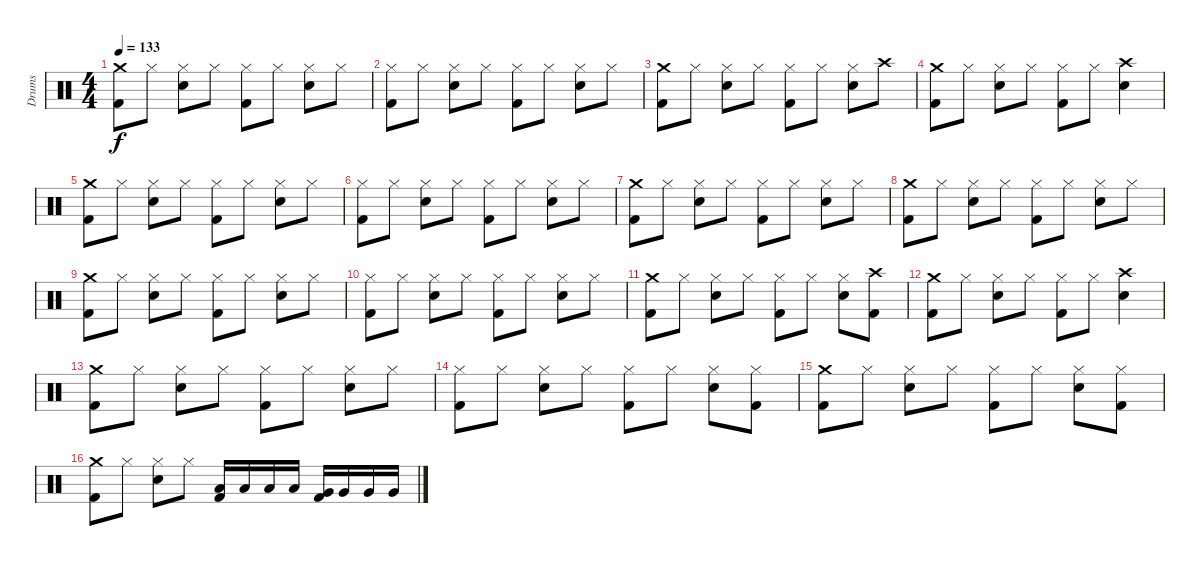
\track ("Drums" "Drums") {instrument percussion}
\staff {score}
\articulation defaults
\ts (4 4)
\tempo 133
\clef neutral
\ks c
("Crash medium (hit)" "Kick (hit) 2").8{dy f} "Hi-Hat (closed)".8 ("Hi-Hat (closed)" "Snare (hit) 2").8 "Hi-Hat (closed)".8 ("Hi-Hat (closed)" "Kick (hit) 2").8 "Hi-Hat (closed)".8 ("Hi-Hat (closed)" "Snare (hit) 2").8 "Hi-Hat (closed)".8 |
("Hi-Hat (closed)" "Kick (hit) 2").8 "Hi-Hat (closed)".8 ("Hi-Hat (closed)" "Snare (hit) 2").8 "Hi-Hat (closed)".8 ("Hi-Hat (closed)" "Kick (hit) 2").8 "Hi-Hat (closed)".8 ("Hi-Hat (closed)" "Snare (hit) 2").8 "Hi-Hat (closed)".8 |
("Crash medium (hit)" "Kick (hit) 2").8 "Hi-Hat (closed)".8 ("Hi-Hat (closed)" "Snare (hit) 2").8 "Hi-Hat (closed)".8 ("Hi-Hat (closed)" "Kick (hit) 2").8 "Hi-Hat (closed)".8 ("Hi-Hat (closed)" "Snare (hit) 2").8 "Crash high (hit)".8 |
("Crash medium (hit)" "Kick (hit) 2").8 "Hi-Hat (closed)".8 ("Hi-Hat (closed)" "Snare (hit) 2").8 "Hi-Hat (closed)".8 ("Hi-Hat (closed)" "Kick (hit) 2").8 "Hi-Hat (closed)".8 ("Crash high (hit)" "Snare (hit) 2").4 |
("Crash medium (hit)" "Kick (hit) 2").8 "Hi-Hat (closed)".8 ("Hi-Hat (closed)" "Snare (hit) 2").8 "Hi-Hat (closed)".8 ("Hi-Hat (closed)" "Kick (hit) 2").8 "Hi-Hat (closed)".8 ("Hi-Hat (closed)" "Snare (hit) 2").8 "Hi-Hat (closed)".8 |
("Hi-Hat (closed)" "Kick (hit) 2").8 "Hi-Hat (closed)".8 ("Hi-Hat (closed)" "Snare (hit) 2").8 "Hi-Hat (closed)".8 ("Hi-Hat (closed)" "Kick (hit) 2").8 "Hi-Hat (closed)".8 ("Hi-Hat (closed)" "Snare (hit) 2").8 "Hi-Hat (closed)".8 |
("Crash medium (hit)" "Kick (hit) 2").8 "Hi-Hat (closed)".8 ("Hi-Hat (closed)" "Snare (hit) 2").8 "Hi-Hat (closed)".8 ("Hi-Hat (closed)" "Kick (hit) 2").8 "Hi-Hat (closed)".8 ("Hi-Hat (closed)" "Snare (hit) 2").8 "Hi-Hat (closed)".8 |
("Crash medium (hit)" "Kick (hit) 2").8 "Hi-Hat (closed)".8 ("Hi-Hat (closed)" "Snare (hit) 2").8 "Hi-Hat (closed)".8 ("Hi-Hat (closed)" "Kick (hit) 2").8 "Hi-Hat (closed)".8 ("Hi-Hat (closed)" "Snare (hit) 2").8 "Hi-Hat (closed)".8 |
("Crash medium (hit)" "Kick (hit) 2").8 "Hi-Hat (closed)".8 ("Hi-Hat (closed)" "Snare (hit) 2").8 "Hi-Hat (closed)".8 ("Hi-Hat (closed)" "Kick (hit) 2").8 "Hi-Hat (closed)".8 ("Hi-Hat (closed)" "Snare (hit) 2").8 "Hi-Hat (closed)".8 |
("Hi-Hat (closed)" "Kick (hit) 2").8 "Hi-Hat (closed)".8 ("Hi-Hat (closed)" "Snare (hit) 2").8 "Hi-Hat (closed)".8 ("Hi-Hat (closed)" "Kick (hit) 2").8 "Hi-Hat (closed)".8 ("Hi-Hat (closed)" "Snare (hit) 2").8 "Hi-Hat (closed)".8 |
("Crash medium (hit)" "Kick (hit) 2").8 "Hi-Hat (closed)".8 ("Hi-Hat (closed)" "Snare (hit) 2").8 "Hi-Hat (closed)".8 ("Hi-Hat (closed)" "Kick (hit) 2").8 "Hi-Hat (closed)".8 ("Hi-Hat (closed)" "Snare (hit) 2").8 ("Crash high (hit)" "Kick (hit) 2").8 |
("Crash medium (hit)" "Kick (hit) 2").8 "Hi-Hat (closed)".8 ("Hi-Hat (closed)" "Snare (hit) 2").8 "Hi-Hat (closed)".8 ("Hi-Hat (closed)" "Kick (hit) 2").8 "Hi-Hat (closed)".8 ("Crash high (hit)" "Snare (hit) 2").4 |
("Crash medium (hit)" "Kick (hit) 2").8 "Hi-Hat (closed)".8 ("Hi-Hat (closed)" "Snare (hit) 2").8 "Hi-Hat (closed)".8 ("Hi-Hat (closed)" "Kick (hit) 2").8 "Hi-Hat (closed)".8 ("Hi-Hat (closed)" "Snare (hit) 2").8 "Hi-Hat (closed)".8 |
("Hi-Hat (closed)" "Kick (hit) 2").8 "Hi-Hat (closed)".8 ("Hi-Hat (closed)" "Snare (hit) 2").8 "Hi-Hat (closed)".8 ("Hi-Hat (closed)" "Kick (hit) 2").8 "Hi-Hat (closed)".8 ("Hi-Hat (closed)" "Snare (hit) 2").8 ("Hi-Hat (closed)" "Kick (hit) 2").8 |
("Crash medium (hit)" "Kick (hit) 2").8 "Hi-Hat (closed)".8 ("Hi-Hat (closed)" "Snare (hit) 2").8 "Hi-Hat (closed)".8 ("Hi-Hat (closed)" "Kick (hit) 2").8 "Hi-Hat (closed)".8 ("Hi-Hat (closed)" "Snare (hit) 2").8 ("Hi-Hat (closed)" "Kick (hit) 2").8 |
("Crash medium (hit)" "Kick (hit) 2").8 "Hi-Hat (closed)".8 ("Hi-Hat (closed)" "Snare (hit) 2").8 "Hi-Hat (closed)".8 ("Low Tom (hit)" "Kick (hit) 2").16 "Low Tom (hit)".16 "Low Tom (hit)".16 "Low Tom (hit)".16 ("Very Low Tom (hit)" "Kick (hit) 2").16 "Very Low Tom (hit)".16 "Very Low Tom (hit)".16 "Very Low Tom (hit)".16
